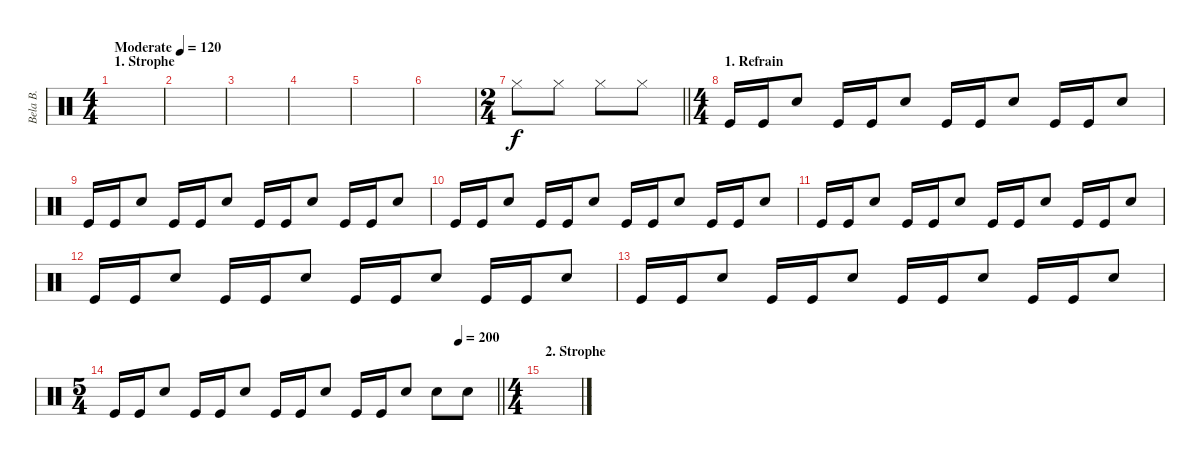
\track ("Bela B." "Bela B.") {instrument percussion}
\staff {score}
\articulation defaults
\ts (4 4)
\section ("" "1. Strophe")
\tempo (120 "Moderate")
\clef neutral
\ks c
|
|
|
|
|
|
\ts (2 4)
\barLineRight lightlight "Hi-Hat (closed)".8 "Hi-Hat (closed)".8 "Hi-Hat (closed)".8 "Hi-Hat (closed)".8
|
\ts (4 4)
\section ("" "1. Refrain")
"Kick (hit)".16 "Kick (hit)".16 "Snare (hit) 2".8 "Kick (hit)".16 "Kick (hit)".16 "Snare (hit) 2".8 "Kick (hit)".16 "Kick (hit)".16 "Snare (hit) 2".8 "Kick (hit)".16 "Kick (hit)".16 "Snare (hit) 2".8 |
"Kick (hit)".16 "Kick (hit)".16 "Snare (hit) 2".8 "Kick (hit)".16 "Kick (hit)".16 "Snare (hit) 2".8 "Kick (hit)".16 "Kick (hit)".16 "Snare (hit) 2".8 "Kick (hit)".16 "Kick (hit)".16 "Snare (hit) 2".8 |
"Kick (hit)".16 "Kick (hit)".16 "Snare (hit) 2".8 "Kick (hit)".16 "Kick (hit)".16 "Snare (hit) 2".8 "Kick (hit)".16 "Kick (hit)".16 "Snare (hit) 2".8 "Kick (hit)".16 "Kick (hit)".16 "Snare (hit) 2".8 |
"Kick (hit)".16 "Kick (hit)".16 "Snare (hit) 2".8 "Kick (hit)".16 "Kick (hit)".16 "Snare (hit) 2".8 "Kick (hit)".16 "Kick (hit)".16 "Snare (hit) 2".8 "Kick (hit)".16 "Kick (hit)".16 "Snare (hit) 2".8 |
"Kick (hit)".16 "Kick (hit)".16 "Snare (hit) 2".8 "Kick (hit)".16 "Kick (hit)".16 "Snare (hit) 2".8 "Kick (hit)".16 "Kick (hit)".16 "Snare (hit) 2".8 "Kick (hit)".16 "Kick (hit)".16 "Snare (hit) 2".8 |
"Kick (hit)".16 "Kick (hit)".16 "Snare (hit) 2".8 "Kick (hit)".16 "Kick (hit)".16 "Snare (hit) 2".8 "Kick (hit)".16 "Kick (hit)".16 "Snare (hit) 2".8 "Kick (hit)".16 "Kick (hit)".16 "Snare (hit) 2".8 |
\ts (5 4)
\tempo (200 0.9)
\barLineRight lightlight "Kick (hit)".16 "Kick (hit)".16 "Snare (hit) 2".8 "Kick (hit)".16 "Kick (hit)".16 "Snare (hit) 2".8 "Kick (hit)".16 "Kick (hit)".16 "Snare (hit) 2".8 "Kick (hit)".16 "Kick (hit)".16 "Electric Snare (hit)".8 "Electric Snare (hit)".8 "Electric Snare (hit)".8
|
\ts (4 4)
\section ("" "2. Strophe")
